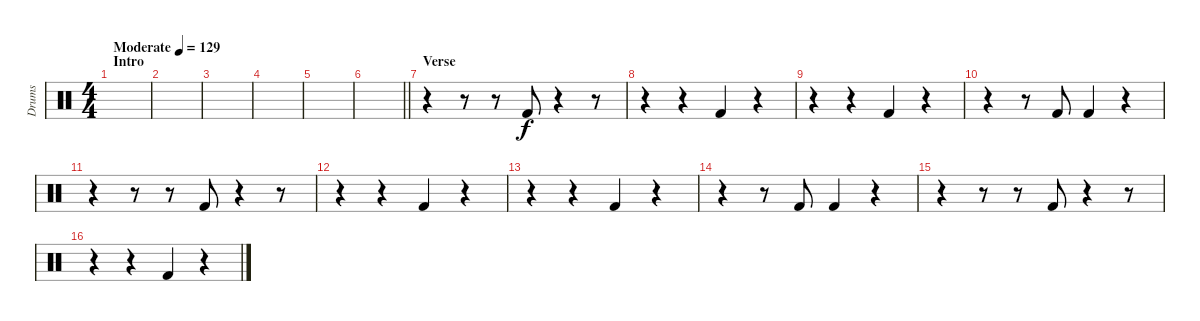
\track ("Drums" "Drums") {instrument percussion}
\staff {score}
\articulation defaults
\ts (4 4)
\section ("" "Intro")
\tempo (129 "Moderate")
\clef neutral
\ks c
|
|
|
|
|
\barLineRight lightlight
|
\section ("" "Verse")
r.4 r.8 r.8 "Kick (hit) 2".8 r.4 r.8 |
r.4 r.4 "Kick (hit) 2".4 r.4 |
r.4 r.4 "Kick (hit) 2".4 r.4 |
r.4 r.8 "Kick (hit) 2".8 "Kick (hit) 2".4 r.4 |
r.4 r.8 r.8 "Kick (hit) 2".8 r.4 r.8 |
r.4 r.4 "Kick (hit) 2".4 r.4 |
r.4 r.4 "Kick (hit) 2".4 r.4 |
r.4 r.8 "Kick (hit) 2".8 "Kick (hit) 2".4 r.4 |
r.4 r.8 r.8 "Kick (hit) 2".8 r.4 r.8 |
r.4 r.4 "Kick (hit) 2".4 r.4
